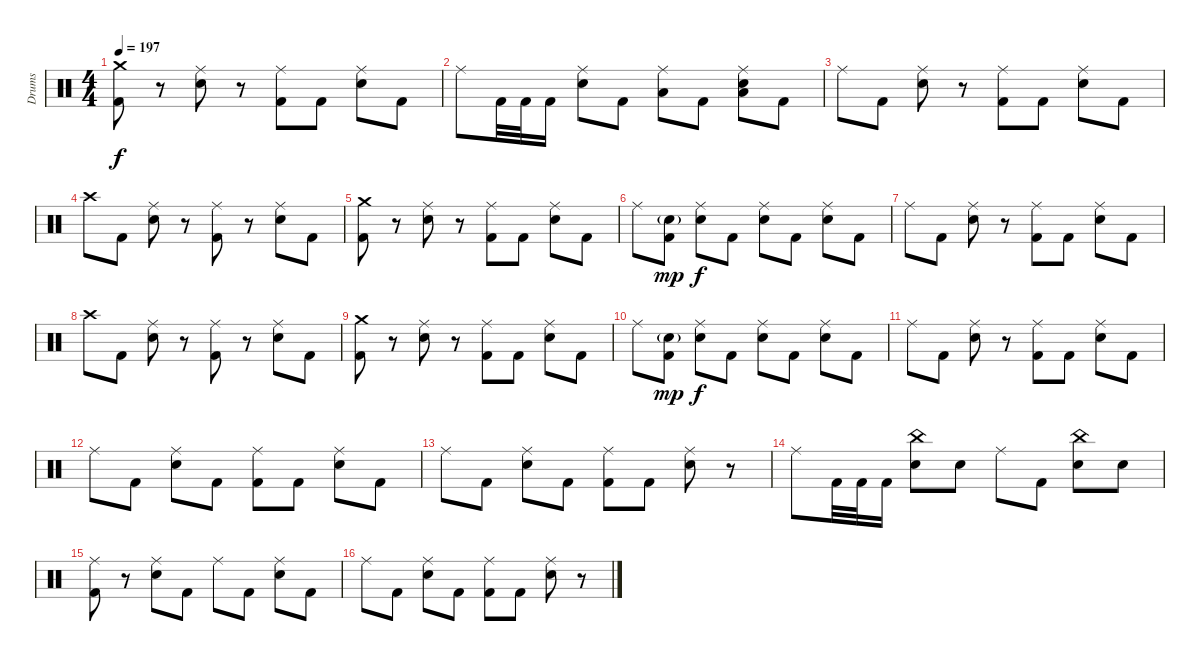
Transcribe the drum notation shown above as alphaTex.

\track ("Drums" "Drums") {instrument percussion}
\staff {score}
\articulation defaults
\ts (4 4)
\tempo 197
\clef neutral
\ks c
("Crash medium (hit)" "Kick (hit) 2").8{dy f} r.8 ("Ride (middle)" "Electric Snare (hit)").8 r.8 ("Ride (middle)" "Kick (hit) 2").8 "Kick (hit) 2".8 ("Ride (middle)" "Electric Snare (hit)").8 "Kick (hit) 2".8 |
"Ride (middle)".8 "Kick (hit) 2".32 "Kick (hit) 2".32 "Kick (hit) 2".16 ("Ride (middle)" "Electric Snare (hit)").8 "Kick (hit) 2".8 ("Ride (middle)" "Low Tom (hit)").8 "Kick (hit) 2".8 ("Ride (middle)" "Electric Snare (hit)" "Low Floor Tom (hit)").8 "Kick (hit) 2".8 |
"Ride (middle)".8 "Kick (hit) 2".8 ("Ride (middle)" "Electric Snare (hit)").8 r.8 ("Ride (middle)" "Kick (hit) 2").8 "Kick (hit) 2".8 ("Ride (middle)" "Electric Snare (hit)").8 "Kick (hit) 2".8 |
"Crash high (hit)".8 "Kick (hit) 2".8 ("Ride (middle)" "Electric Snare (hit)").8 r.8 ("Ride (middle)" "Kick (hit) 2").8 r.8 ("Ride (middle)" "Electric Snare (hit)").8 "Kick (hit) 2".8 |
("Crash medium (hit)" "Kick (hit) 2").8 r.8 ("Ride (middle)" "Electric Snare (hit)").8 r.8 ("Ride (middle)" "Kick (hit) 2").8 "Kick (hit) 2".8 ("Ride (middle)" "Electric Snare (hit)").8 "Kick (hit) 2".8 |
"Ride (middle)".8 ("Electric Snare (hit)"{g} "Kick (hit) 2").8{dy mp} ("Ride (middle)" "Electric Snare (hit)").8{dy f} "Kick (hit) 2".8 ("Ride (middle)" "Electric Snare (hit)").8 "Kick (hit) 2".8 ("Ride (middle)" "Electric Snare (hit)").8 "Kick (hit) 2".8 |
"Ride (middle)".8 "Kick (hit) 2".8 ("Ride (middle)" "Electric Snare (hit)").8 r.8 ("Ride (middle)" "Kick (hit) 2").8 "Kick (hit) 2".8 ("Ride (middle)" "Electric Snare (hit)").8 "Kick (hit) 2".8 |
"Crash high (hit)".8 "Kick (hit) 2".8 ("Ride (middle)" "Electric Snare (hit)").8 r.8 ("Ride (middle)" "Kick (hit) 2").8 r.8 ("Ride (middle)" "Electric Snare (hit)").8 "Kick (hit) 2".8 |
("Crash medium (hit)" "Kick (hit) 2").8 r.8 ("Ride (middle)" "Electric Snare (hit)").8 r.8 ("Ride (middle)" "Kick (hit) 2").8 "Kick (hit) 2".8 ("Ride (middle)" "Electric Snare (hit)").8 "Kick (hit) 2".8 |
"Ride (middle)".8 ("Electric Snare (hit)"{g} "Kick (hit) 2").8{dy mp} ("Ride (middle)" "Electric Snare (hit)").8{dy f} "Kick (hit) 2".8 ("Ride (middle)" "Electric Snare (hit)").8 "Kick (hit) 2".8 ("Ride (middle)" "Electric Snare (hit)").8 "Kick (hit) 2".8 |
"Ride (middle)".8 "Kick (hit) 2".8 ("Ride (middle)" "Electric Snare (hit)").8 r.8 ("Ride (middle)" "Kick (hit) 2").8 "Kick (hit) 2".8 ("Ride (middle)" "Electric Snare (hit)").8 "Kick (hit) 2".8 |
"Ride (middle)".8 "Kick (hit) 2".8 ("Ride (middle)" "Electric Snare (hit)").8 "Kick (hit) 2".8 ("Ride (middle)" "Kick (hit) 2").8 "Kick (hit) 2".8 ("Ride (middle)" "Electric Snare (hit)").8 "Kick (hit) 2".8 |
"Ride (middle)".8 "Kick (hit) 2".8 ("Ride (middle)" "Electric Snare (hit)").8 "Kick (hit) 2".8 ("Ride (middle)" "Kick (hit) 2").8 "Kick (hit) 2".8 ("Ride (middle)" "Electric Snare (hit)").8 r.8 |
"Ride (middle)".8 "Kick (hit) 2".32 "Kick (hit) 2".32 "Kick (hit) 2".16 ("China (hit)" "Electric Snare (hit)").8 "Electric Snare (hit)".8 "Ride (middle)".8 "Kick (hit) 2".8 ("China (hit)" "Electric Snare (hit)").8 "Electric Snare (hit)".8 |
("Ride (middle)" "Kick (hit) 2").8 r.8 ("Ride (middle)" "Electric Snare (hit)").8 "Kick (hit) 2".8 "Ride (middle)".8 "Kick (hit) 2".8 ("Ride (middle)" "Electric Snare (hit)").8 "Kick (hit) 2".8 |
"Ride (middle)".8 "Kick (hit) 2".8 ("Ride (middle)" "Electric Snare (hit)").8 "Kick (hit) 2".8 ("Ride (middle)" "Kick (hit) 2").8 "Kick (hit) 2".8 ("Ride (middle)" "Electric Snare (hit)").8 r.8
